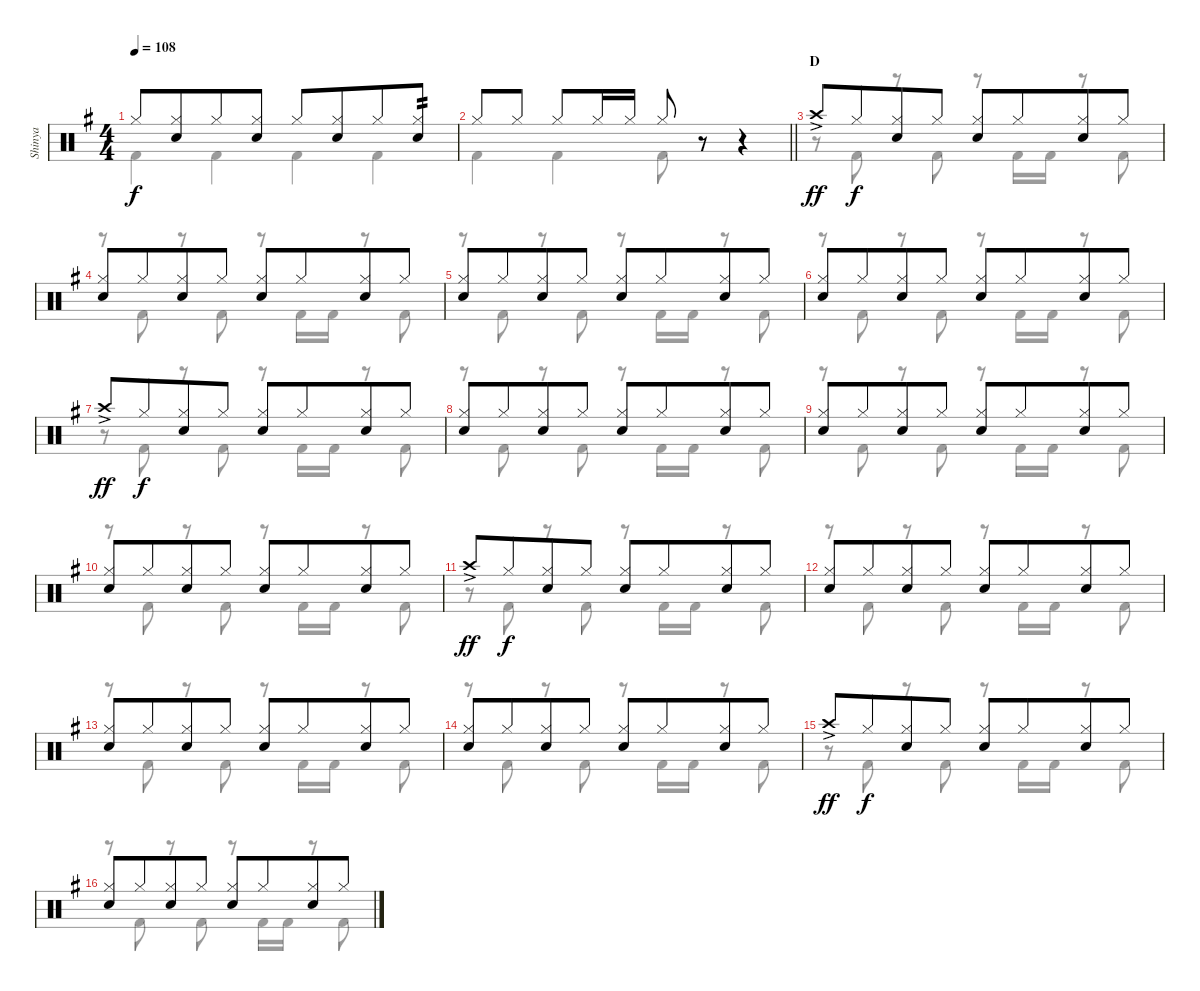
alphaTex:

\track ("Shinya" "Shinya") {instrument percussion}
\staff {score}
\articulation defaults
\voice
\ts (4 4)
\tempo 108
\clef neutral
\ks eminor "Hi-Hat (closed)".8{dy f}
("Hi-Hat (closed)" "Snare (hit) 2").8{beam merge} "Hi-Hat (closed)".8 ("Hi-Hat (closed)" "Snare (hit) 2").8 "Hi-Hat (closed)".8 ("Hi-Hat (closed)" "Snare (hit) 2").8{beam merge} "Hi-Hat (closed)".8 ("Hi-Hat (closed)" "Snare (hit) 2").8{tp 2} |
\barLineRight lightlight "Hi-Hat (closed)".8 "Hi-Hat (closed)".8 "Hi-Hat (closed)".8 "Hi-Hat (closed)".16 "Hi-Hat (closed)".16 "Hi-Hat (closed)".8
r.8 r.4 |
\section ("" "D")
"Crash high (hit)"{ac}.8{dy ff} "Hi-Hat (closed)".8{dy f beam merge} ("Hi-Hat (closed)" "Snare (hit) 2").8 "Hi-Hat (closed)".8 ("Hi-Hat (closed)" "Snare (hit) 2").8 "Hi-Hat (closed)".8{beam merge} ("Hi-Hat (closed)" "Snare (hit) 2").8 "Hi-Hat (closed)".8 |
("Hi-Hat (closed)" "Snare (hit) 2").8 "Hi-Hat (closed)".8{beam merge} ("Hi-Hat (closed)" "Snare (hit) 2").8 "Hi-Hat (closed)".8 ("Hi-Hat (closed)" "Snare (hit) 2").8 "Hi-Hat (closed)".8{beam merge} ("Hi-Hat (closed)" "Snare (hit) 2").8 "Hi-Hat (closed)".8 |
("Hi-Hat (closed)" "Snare (hit) 2").8 "Hi-Hat (closed)".8{beam merge} ("Hi-Hat (closed)" "Snare (hit) 2").8 "Hi-Hat (closed)".8 ("Hi-Hat (closed)" "Snare (hit) 2").8 "Hi-Hat (closed)".8{beam merge} ("Hi-Hat (closed)" "Snare (hit) 2").8 "Hi-Hat (closed)".8 |
("Hi-Hat (closed)" "Snare (hit) 2").8 "Hi-Hat (closed)".8{beam merge} ("Hi-Hat (closed)" "Snare (hit) 2").8 "Hi-Hat (closed)".8 ("Hi-Hat (closed)" "Snare (hit) 2").8 "Hi-Hat (closed)".8{beam merge} ("Hi-Hat (closed)" "Snare (hit) 2").8 "Hi-Hat (closed)".8 |
"Crash high (hit)"{ac}.8{dy ff} "Hi-Hat (closed)".8{dy f beam merge} ("Hi-Hat (closed)" "Snare (hit) 2").8 "Hi-Hat (closed)".8 ("Hi-Hat (closed)" "Snare (hit) 2").8 "Hi-Hat (closed)".8{beam merge} ("Hi-Hat (closed)" "Snare (hit) 2").8 "Hi-Hat (closed)".8 |
("Hi-Hat (closed)" "Snare (hit) 2").8 "Hi-Hat (closed)".8{beam merge} ("Hi-Hat (closed)" "Snare (hit) 2").8 "Hi-Hat (closed)".8 ("Hi-Hat (closed)" "Snare (hit) 2").8 "Hi-Hat (closed)".8{beam merge} ("Hi-Hat (closed)" "Snare (hit) 2").8 "Hi-Hat (closed)".8 |
("Hi-Hat (closed)" "Snare (hit) 2").8 "Hi-Hat (closed)".8{beam merge} ("Hi-Hat (closed)" "Snare (hit) 2").8 "Hi-Hat (closed)".8 ("Hi-Hat (closed)" "Snare (hit) 2").8 "Hi-Hat (closed)".8{beam merge} ("Hi-Hat (closed)" "Snare (hit) 2").8 "Hi-Hat (closed)".8 |
("Hi-Hat (closed)" "Snare (hit) 2").8 "Hi-Hat (closed)".8{beam merge} ("Hi-Hat (closed)" "Snare (hit) 2").8 "Hi-Hat (closed)".8 ("Hi-Hat (closed)" "Snare (hit) 2").8 "Hi-Hat (closed)".8{beam merge} ("Hi-Hat (closed)" "Snare (hit) 2").8 "Hi-Hat (closed)".8 |
"Crash high (hit)"{ac}.8{dy ff} "Hi-Hat (closed)".8{dy f beam merge} ("Hi-Hat (closed)" "Snare (hit) 2").8 "Hi-Hat (closed)".8 ("Hi-Hat (closed)" "Snare (hit) 2").8 "Hi-Hat (closed)".8{beam merge} ("Hi-Hat (closed)" "Snare (hit) 2").8 "Hi-Hat (closed)".8 |
("Hi-Hat (closed)" "Snare (hit) 2").8 "Hi-Hat (closed)".8{beam merge} ("Hi-Hat (closed)" "Snare (hit) 2").8 "Hi-Hat (closed)".8 ("Hi-Hat (closed)" "Snare (hit) 2").8 "Hi-Hat (closed)".8{beam merge} ("Hi-Hat (closed)" "Snare (hit) 2").8 "Hi-Hat (closed)".8 |
("Hi-Hat (closed)" "Snare (hit) 2").8 "Hi-Hat (closed)".8{beam merge} ("Hi-Hat (closed)" "Snare (hit) 2").8 "Hi-Hat (closed)".8 ("Hi-Hat (closed)" "Snare (hit) 2").8 "Hi-Hat (closed)".8{beam merge} ("Hi-Hat (closed)" "Snare (hit) 2").8 "Hi-Hat (closed)".8 |
("Hi-Hat (closed)" "Snare (hit) 2").8 "Hi-Hat (closed)".8{beam merge} ("Hi-Hat (closed)" "Snare (hit) 2").8 "Hi-Hat (closed)".8 ("Hi-Hat (closed)" "Snare (hit) 2").8 "Hi-Hat (closed)".8{beam merge} ("Hi-Hat (closed)" "Snare (hit) 2").8 "Hi-Hat (closed)".8 |
"Crash high (hit)"{ac}.8{dy ff} "Hi-Hat (closed)".8{dy f beam merge} ("Hi-Hat (closed)" "Snare (hit) 2").8 "Hi-Hat (closed)".8 ("Hi-Hat (closed)" "Snare (hit) 2").8 "Hi-Hat (closed)".8{beam merge} ("Hi-Hat (closed)" "Snare (hit) 2").8 "Hi-Hat (closed)".8 |
("Hi-Hat (closed)" "Snare (hit) 2").8 "Hi-Hat (closed)".8{beam merge} ("Hi-Hat (closed)" "Snare (hit) 2").8 "Hi-Hat (closed)".8 ("Hi-Hat (closed)" "Snare (hit) 2").8 "Hi-Hat (closed)".8{beam merge} ("Hi-Hat (closed)" "Snare (hit) 2").8 "Hi-Hat (closed)".8
\voice
\clef neutral
\ottava regular
\simile none
\ks eminor "Kick (hit) 2".4{dy f} "Kick (hit) 2".4 "Kick (hit) 2".4 "Kick (hit) 2".4
|
\barLineRight lightlight "Kick (hit) 2".4 "Kick (hit) 2".4 "Kick (hit) 2".8
r.8 r.4 |
r.8 "Kick (hit) 2".8 r.8 "Kick (hit) 2".8 r.8 "Kick (hit) 2".16 "Kick (hit) 2".16 r.8 "Kick (hit) 2".8 |
r.8 "Kick (hit) 2".8 r.8 "Kick (hit) 2".8 r.8 "Kick (hit) 2".16 "Kick (hit) 2".16 r.8 "Kick (hit) 2".8 |
r.8 "Kick (hit) 2".8 r.8 "Kick (hit) 2".8 r.8 "Kick (hit) 2".16 "Kick (hit) 2".16 r.8 "Kick (hit) 2".8 |
r.8 "Kick (hit) 2".8 r.8 "Kick (hit) 2".8 r.8 "Kick (hit) 2".16 "Kick (hit) 2".16 r.8 "Kick (hit) 2".8 |
r.8 "Kick (hit) 2".8 r.8 "Kick (hit) 2".8 r.8 "Kick (hit) 2".16 "Kick (hit) 2".16 r.8 "Kick (hit) 2".8 |
r.8 "Kick (hit) 2".8 r.8 "Kick (hit) 2".8 r.8 "Kick (hit) 2".16 "Kick (hit) 2".16 r.8 "Kick (hit) 2".8 |
r.8 "Kick (hit) 2".8 r.8 "Kick (hit) 2".8 r.8 "Kick (hit) 2".16 "Kick (hit) 2".16 r.8 "Kick (hit) 2".8 |
r.8 "Kick (hit) 2".8 r.8 "Kick (hit) 2".8 r.8 "Kick (hit) 2".16 "Kick (hit) 2".16 r.8 "Kick (hit) 2".8 |
r.8 "Kick (hit) 2".8 r.8 "Kick (hit) 2".8 r.8 "Kick (hit) 2".16 "Kick (hit) 2".16 r.8 "Kick (hit) 2".8 |
r.8 "Kick (hit) 2".8 r.8 "Kick (hit) 2".8 r.8 "Kick (hit) 2".16 "Kick (hit) 2".16 r.8 "Kick (hit) 2".8 |
r.8 "Kick (hit) 2".8 r.8 "Kick (hit) 2".8 r.8 "Kick (hit) 2".16 "Kick (hit) 2".16 r.8 "Kick (hit) 2".8 |
r.8 "Kick (hit) 2".8 r.8 "Kick (hit) 2".8 r.8 "Kick (hit) 2".16 "Kick (hit) 2".16 r.8 "Kick (hit) 2".8 |
r.8 "Kick (hit) 2".8 r.8 "Kick (hit) 2".8 r.8 "Kick (hit) 2".16 "Kick (hit) 2".16 r.8 "Kick (hit) 2".8 |
r.8 "Kick (hit) 2".8 r.8 "Kick (hit) 2".8 r.8 "Kick (hit) 2".16 "Kick (hit) 2".16 r.8 "Kick (hit) 2".8
